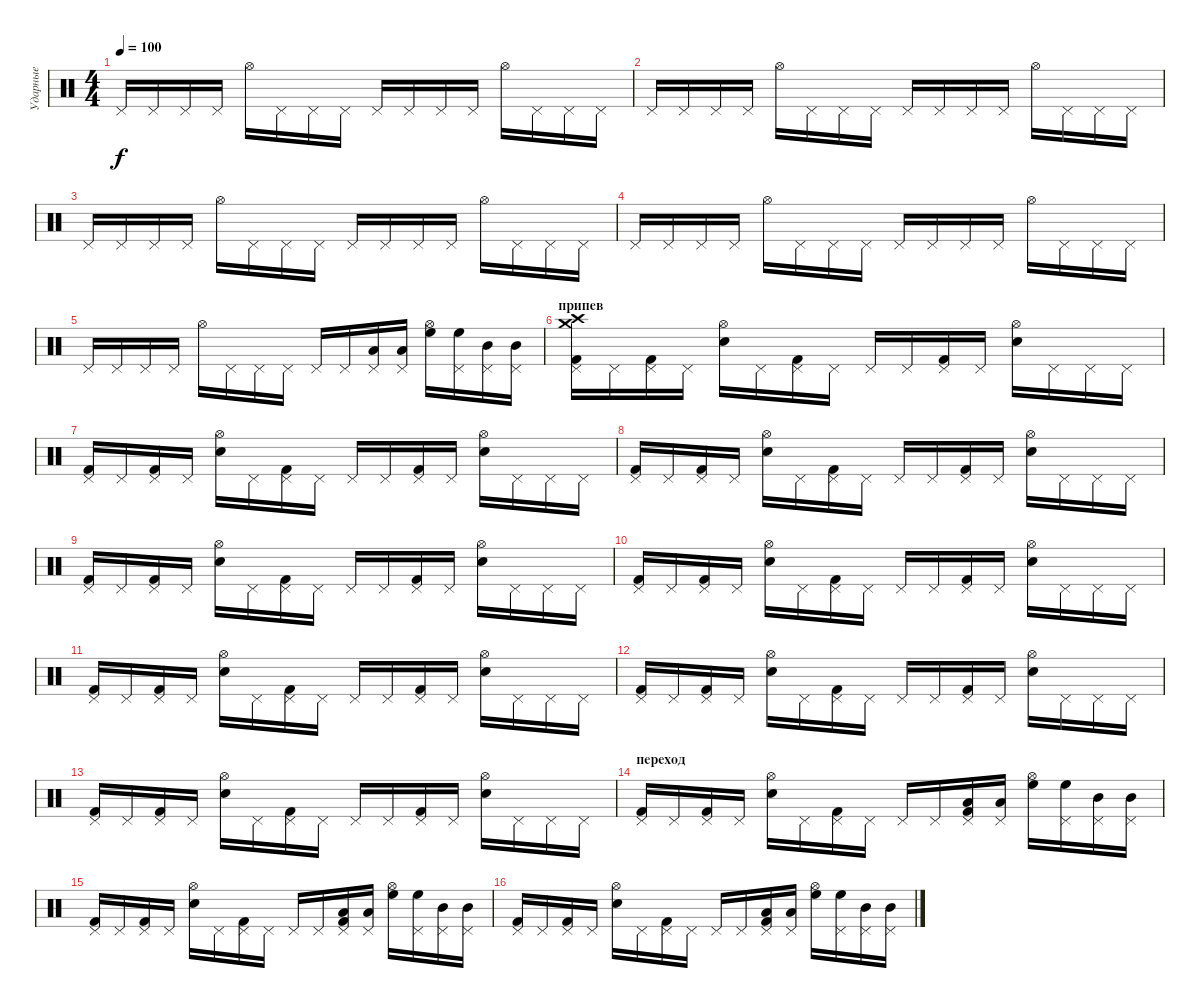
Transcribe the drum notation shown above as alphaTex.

\track ("Ударные" "Ударные") {instrument percussion}
\staff {score}
\articulation defaults
\ts (4 4)
\tempo 100
\clef neutral
\ks c "Pedal Hi-Hat (hit)".16{dy f} "Pedal Hi-Hat (hit)".16 "Pedal Hi-Hat (hit)".16 "Pedal Hi-Hat (hit)".16 "Hi-Hat (open)".16 "Pedal Hi-Hat (hit)".16 "Pedal Hi-Hat (hit)".16 "Pedal Hi-Hat (hit)".16 "Pedal Hi-Hat (hit)".16 "Pedal Hi-Hat (hit)".16 "Pedal Hi-Hat (hit)".16 "Pedal Hi-Hat (hit)".16 "Hi-Hat (open)".16 "Pedal Hi-Hat (hit)".16 "Pedal Hi-Hat (hit)".16 "Pedal Hi-Hat (hit)".16
|
"Pedal Hi-Hat (hit)".16 "Pedal Hi-Hat (hit)".16 "Pedal Hi-Hat (hit)".16 "Pedal Hi-Hat (hit)".16 "Hi-Hat (open)".16 "Pedal Hi-Hat (hit)".16 "Pedal Hi-Hat (hit)".16 "Pedal Hi-Hat (hit)".16 "Pedal Hi-Hat (hit)".16 "Pedal Hi-Hat (hit)".16 "Pedal Hi-Hat (hit)".16 "Pedal Hi-Hat (hit)".16 "Hi-Hat (open)".16 "Pedal Hi-Hat (hit)".16 "Pedal Hi-Hat (hit)".16 "Pedal Hi-Hat (hit)".16 |
"Pedal Hi-Hat (hit)".16 "Pedal Hi-Hat (hit)".16 "Pedal Hi-Hat (hit)".16 "Pedal Hi-Hat (hit)".16 "Hi-Hat (open)".16 "Pedal Hi-Hat (hit)".16 "Pedal Hi-Hat (hit)".16 "Pedal Hi-Hat (hit)".16 "Pedal Hi-Hat (hit)".16 "Pedal Hi-Hat (hit)".16 "Pedal Hi-Hat (hit)".16 "Pedal Hi-Hat (hit)".16 "Hi-Hat (open)".16 "Pedal Hi-Hat (hit)".16 "Pedal Hi-Hat (hit)".16 "Pedal Hi-Hat (hit)".16 |
"Pedal Hi-Hat (hit)".16 "Pedal Hi-Hat (hit)".16 "Pedal Hi-Hat (hit)".16 "Pedal Hi-Hat (hit)".16 "Hi-Hat (open)".16 "Pedal Hi-Hat (hit)".16 "Pedal Hi-Hat (hit)".16 "Pedal Hi-Hat (hit)".16 "Pedal Hi-Hat (hit)".16 "Pedal Hi-Hat (hit)".16 "Pedal Hi-Hat (hit)".16 "Pedal Hi-Hat (hit)".16 "Hi-Hat (open)".16 "Pedal Hi-Hat (hit)".16 "Pedal Hi-Hat (hit)".16 "Pedal Hi-Hat (hit)".16 |
"Pedal Hi-Hat (hit)".16 "Pedal Hi-Hat (hit)".16 "Pedal Hi-Hat (hit)".16 "Pedal Hi-Hat (hit)".16 "Hi-Hat (open)".16 "Pedal Hi-Hat (hit)".16 "Pedal Hi-Hat (hit)".16 "Pedal Hi-Hat (hit)".16 "Pedal Hi-Hat (hit)".16 "Pedal Hi-Hat (hit)".16 ("Pedal Hi-Hat (hit)" "Low Tom (hit)").16 ("Pedal Hi-Hat (hit)" "Low Tom (hit)").16 ("Hi-Hat (open)" "High Floor Tom (hit)").16 ("Pedal Hi-Hat (hit)" "High Floor Tom (hit)").16 ("Pedal Hi-Hat (hit)" "Mid Tom (hit)").16 ("Pedal Hi-Hat (hit)" "Mid Tom (hit)").16 |
\section ("" "припев")
("Pedal Hi-Hat (hit)" "Kick (hit) 2" "Crash high (hit)" "Crash medium (hit)").16 "Pedal Hi-Hat (hit)".16 ("Pedal Hi-Hat (hit)" "Kick (hit) 2").16 "Pedal Hi-Hat (hit)".16 ("Hi-Hat (open)" "Snare (hit) 2").16 "Pedal Hi-Hat (hit)".16 ("Pedal Hi-Hat (hit)" "Kick (hit) 2").16 "Pedal Hi-Hat (hit)".16 "Pedal Hi-Hat (hit)".16 "Pedal Hi-Hat (hit)".16 ("Pedal Hi-Hat (hit)" "Kick (hit) 2").16 "Pedal Hi-Hat (hit)".16 ("Hi-Hat (open)" "Snare (hit) 2").16 "Pedal Hi-Hat (hit)".16 "Pedal Hi-Hat (hit)".16 "Pedal Hi-Hat (hit)".16 |
("Pedal Hi-Hat (hit)" "Kick (hit) 2").16 "Pedal Hi-Hat (hit)".16 ("Pedal Hi-Hat (hit)" "Kick (hit) 2").16 "Pedal Hi-Hat (hit)".16 ("Hi-Hat (open)" "Snare (hit) 2").16 "Pedal Hi-Hat (hit)".16 ("Pedal Hi-Hat (hit)" "Kick (hit) 2").16 "Pedal Hi-Hat (hit)".16 "Pedal Hi-Hat (hit)".16 "Pedal Hi-Hat (hit)".16 ("Pedal Hi-Hat (hit)" "Kick (hit) 2").16 "Pedal Hi-Hat (hit)".16 ("Hi-Hat (open)" "Snare (hit) 2").16 "Pedal Hi-Hat (hit)".16 "Pedal Hi-Hat (hit)".16 "Pedal Hi-Hat (hit)".16 |
("Pedal Hi-Hat (hit)" "Kick (hit) 2").16 "Pedal Hi-Hat (hit)".16 ("Pedal Hi-Hat (hit)" "Kick (hit) 2").16 "Pedal Hi-Hat (hit)".16 ("Hi-Hat (open)" "Snare (hit) 2").16 "Pedal Hi-Hat (hit)".16 ("Pedal Hi-Hat (hit)" "Kick (hit) 2").16 "Pedal Hi-Hat (hit)".16 "Pedal Hi-Hat (hit)".16 "Pedal Hi-Hat (hit)".16 ("Pedal Hi-Hat (hit)" "Kick (hit) 2").16 "Pedal Hi-Hat (hit)".16 ("Hi-Hat (open)" "Snare (hit) 2").16 "Pedal Hi-Hat (hit)".16 "Pedal Hi-Hat (hit)".16 "Pedal Hi-Hat (hit)".16 |
("Pedal Hi-Hat (hit)" "Kick (hit) 2").16 "Pedal Hi-Hat (hit)".16 ("Pedal Hi-Hat (hit)" "Kick (hit) 2").16 "Pedal Hi-Hat (hit)".16 ("Hi-Hat (open)" "Snare (hit) 2").16 "Pedal Hi-Hat (hit)".16 ("Pedal Hi-Hat (hit)" "Kick (hit) 2").16 "Pedal Hi-Hat (hit)".16 "Pedal Hi-Hat (hit)".16 "Pedal Hi-Hat (hit)".16 ("Pedal Hi-Hat (hit)" "Kick (hit) 2").16 "Pedal Hi-Hat (hit)".16 ("Hi-Hat (open)" "Snare (hit) 2").16 "Pedal Hi-Hat (hit)".16 "Pedal Hi-Hat (hit)".16 "Pedal Hi-Hat (hit)".16 |
("Pedal Hi-Hat (hit)" "Kick (hit) 2").16 "Pedal Hi-Hat (hit)".16 ("Pedal Hi-Hat (hit)" "Kick (hit) 2").16 "Pedal Hi-Hat (hit)".16 ("Hi-Hat (open)" "Snare (hit) 2").16 "Pedal Hi-Hat (hit)".16 ("Pedal Hi-Hat (hit)" "Kick (hit) 2").16 "Pedal Hi-Hat (hit)".16 "Pedal Hi-Hat (hit)".16 "Pedal Hi-Hat (hit)".16 ("Pedal Hi-Hat (hit)" "Kick (hit) 2").16 "Pedal Hi-Hat (hit)".16 ("Hi-Hat (open)" "Snare (hit) 2").16 "Pedal Hi-Hat (hit)".16 "Pedal Hi-Hat (hit)".16 "Pedal Hi-Hat (hit)".16 |
("Pedal Hi-Hat (hit)" "Kick (hit) 2").16 "Pedal Hi-Hat (hit)".16 ("Pedal Hi-Hat (hit)" "Kick (hit) 2").16 "Pedal Hi-Hat (hit)".16 ("Hi-Hat (open)" "Snare (hit) 2").16 "Pedal Hi-Hat (hit)".16 ("Pedal Hi-Hat (hit)" "Kick (hit) 2").16 "Pedal Hi-Hat (hit)".16 "Pedal Hi-Hat (hit)".16 "Pedal Hi-Hat (hit)".16 ("Pedal Hi-Hat (hit)" "Kick (hit) 2").16 "Pedal Hi-Hat (hit)".16 ("Hi-Hat (open)" "Snare (hit) 2").16 "Pedal Hi-Hat (hit)".16 "Pedal Hi-Hat (hit)".16 "Pedal Hi-Hat (hit)".16 |
("Pedal Hi-Hat (hit)" "Kick (hit) 2").16 "Pedal Hi-Hat (hit)".16 ("Pedal Hi-Hat (hit)" "Kick (hit) 2").16 "Pedal Hi-Hat (hit)".16 ("Hi-Hat (open)" "Snare (hit) 2").16 "Pedal Hi-Hat (hit)".16 ("Pedal Hi-Hat (hit)" "Kick (hit) 2").16 "Pedal Hi-Hat (hit)".16 "Pedal Hi-Hat (hit)".16 "Pedal Hi-Hat (hit)".16 ("Pedal Hi-Hat (hit)" "Kick (hit) 2").16 "Pedal Hi-Hat (hit)".16 ("Hi-Hat (open)" "Snare (hit) 2").16 "Pedal Hi-Hat (hit)".16 "Pedal Hi-Hat (hit)".16 "Pedal Hi-Hat (hit)".16 |
("Pedal Hi-Hat (hit)" "Kick (hit) 2").16 "Pedal Hi-Hat (hit)".16 ("Pedal Hi-Hat (hit)" "Kick (hit) 2").16 "Pedal Hi-Hat (hit)".16 ("Hi-Hat (open)" "Snare (hit) 2").16 "Pedal Hi-Hat (hit)".16 ("Pedal Hi-Hat (hit)" "Kick (hit) 2").16 "Pedal Hi-Hat (hit)".16 "Pedal Hi-Hat (hit)".16 "Pedal Hi-Hat (hit)".16 ("Pedal Hi-Hat (hit)" "Kick (hit) 2").16 "Pedal Hi-Hat (hit)".16 ("Hi-Hat (open)" "Snare (hit) 2").16 "Pedal Hi-Hat (hit)".16 "Pedal Hi-Hat (hit)".16 "Pedal Hi-Hat (hit)".16 |
\section ("" "переход")
("Pedal Hi-Hat (hit)" "Kick (hit) 2").16 "Pedal Hi-Hat (hit)".16 ("Pedal Hi-Hat (hit)" "Kick (hit) 2").16 "Pedal Hi-Hat (hit)".16 ("Hi-Hat (open)" "Snare (hit) 2").16 "Pedal Hi-Hat (hit)".16 ("Pedal Hi-Hat (hit)" "Kick (hit) 2").16 "Pedal Hi-Hat (hit)".16 "Pedal Hi-Hat (hit)".16 "Pedal Hi-Hat (hit)".16 ("Pedal Hi-Hat (hit)" "Kick (hit) 2" "Low Tom (hit)").16 ("Pedal Hi-Hat (hit)" "Low Tom (hit)").16 ("Hi-Hat (open)" "High Floor Tom (hit)").16 ("Pedal Hi-Hat (hit)" "High Floor Tom (hit)").16 ("Pedal Hi-Hat (hit)" "Mid Tom (hit)").16 ("Pedal Hi-Hat (hit)" "Mid Tom (hit)").16 |
("Pedal Hi-Hat (hit)" "Kick (hit) 2").16 "Pedal Hi-Hat (hit)".16 ("Pedal Hi-Hat (hit)" "Kick (hit) 2").16 "Pedal Hi-Hat (hit)".16 ("Hi-Hat (open)" "Snare (hit) 2").16 "Pedal Hi-Hat (hit)".16 ("Pedal Hi-Hat (hit)" "Kick (hit) 2").16 "Pedal Hi-Hat (hit)".16 "Pedal Hi-Hat (hit)".16 "Pedal Hi-Hat (hit)".16 ("Pedal Hi-Hat (hit)" "Kick (hit) 2" "Low Tom (hit)").16 ("Pedal Hi-Hat (hit)" "Low Tom (hit)").16 ("Hi-Hat (open)" "High Floor Tom (hit)").16 ("Pedal Hi-Hat (hit)" "High Floor Tom (hit)").16 ("Pedal Hi-Hat (hit)" "Mid Tom (hit)").16 ("Pedal Hi-Hat (hit)" "Mid Tom (hit)").16 |
("Pedal Hi-Hat (hit)" "Kick (hit) 2").16 "Pedal Hi-Hat (hit)".16 ("Pedal Hi-Hat (hit)" "Kick (hit) 2").16 "Pedal Hi-Hat (hit)".16 ("Hi-Hat (open)" "Snare (hit) 2").16 "Pedal Hi-Hat (hit)".16 ("Pedal Hi-Hat (hit)" "Kick (hit) 2").16 "Pedal Hi-Hat (hit)".16 "Pedal Hi-Hat (hit)".16 "Pedal Hi-Hat (hit)".16 ("Pedal Hi-Hat (hit)" "Kick (hit) 2" "Low Tom (hit)").16 ("Pedal Hi-Hat (hit)" "Low Tom (hit)").16 ("Hi-Hat (open)" "High Floor Tom (hit)").16 ("Pedal Hi-Hat (hit)" "High Floor Tom (hit)").16 ("Pedal Hi-Hat (hit)" "Mid Tom (hit)").16 ("Pedal Hi-Hat (hit)" "Mid Tom (hit)").16
